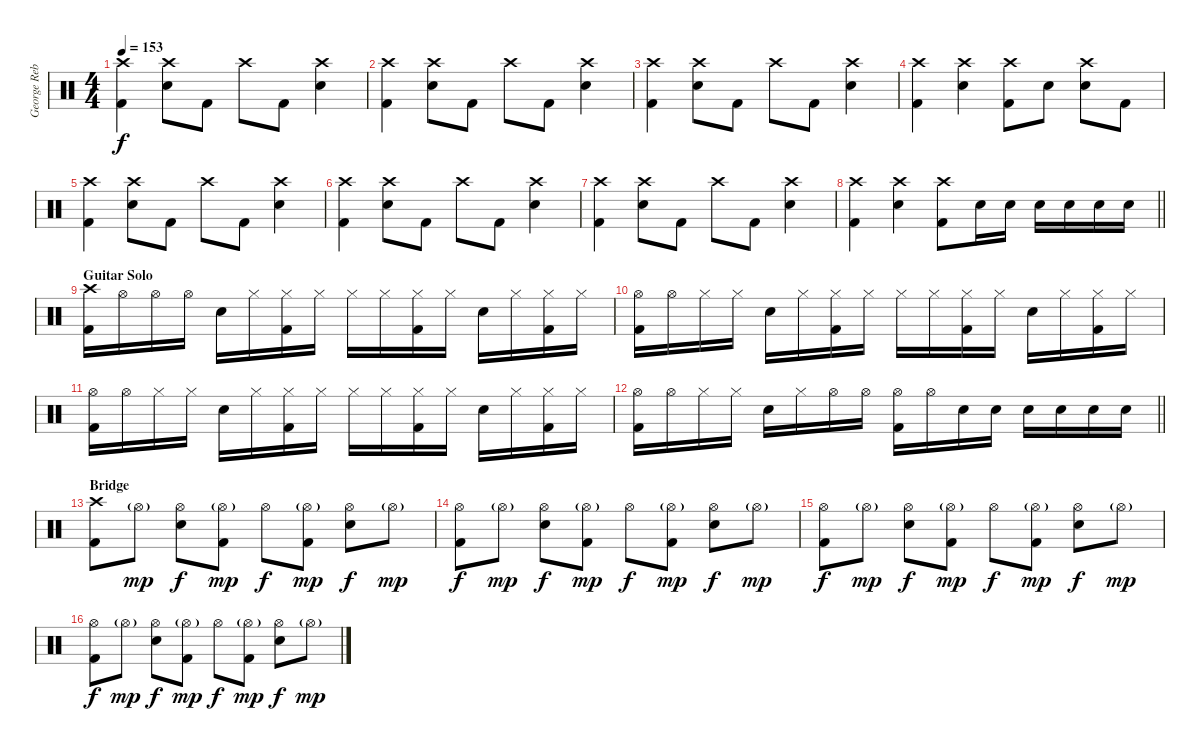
\track ("George Rebelo (Drums)" "George Reb") {instrument percussion}
\staff {score}
\articulation defaults
\ts (4 4)
\tempo 153
\clef neutral
\ks c
("Crash high (hit)" "Kick (hit) 2").4{dy f} ("Crash high (hit)" "Electric Snare (hit)").8 "Kick (hit) 2".8 "Crash high (hit)".8 "Kick (hit) 2".8 ("Crash high (hit)" "Electric Snare (hit)").4 |
("Crash high (hit)" "Kick (hit) 2").4 ("Crash high (hit)" "Electric Snare (hit)").8 "Kick (hit) 2".8 "Crash high (hit)".8 "Kick (hit) 2".8 ("Crash high (hit)" "Electric Snare (hit)").4 |
("Crash high (hit)" "Kick (hit) 2").4 ("Crash high (hit)" "Electric Snare (hit)").8 "Kick (hit) 2".8 "Crash high (hit)".8 "Kick (hit) 2".8 ("Crash high (hit)" "Electric Snare (hit)").4 |
("Crash high (hit)" "Kick (hit) 2").4 ("Crash high (hit)" "Electric Snare (hit)").4 ("Crash high (hit)" "Kick (hit) 2").8 "Electric Snare (hit)".8 ("Crash high (hit)" "Electric Snare (hit)").8 "Kick (hit) 2".8 |
("Crash high (hit)" "Kick (hit) 2").4 ("Crash high (hit)" "Electric Snare (hit)").8 "Kick (hit) 2".8 "Crash high (hit)".8 "Kick (hit) 2".8 ("Crash high (hit)" "Electric Snare (hit)").4 |
("Crash high (hit)" "Kick (hit) 2").4 ("Crash high (hit)" "Electric Snare (hit)").8 "Kick (hit) 2".8 "Crash high (hit)".8 "Kick (hit) 2".8 ("Crash high (hit)" "Electric Snare (hit)").4 |
("Crash high (hit)" "Kick (hit) 2").4 ("Crash high (hit)" "Electric Snare (hit)").8 "Kick (hit) 2".8 "Crash high (hit)".8 "Kick (hit) 2".8 ("Crash high (hit)" "Electric Snare (hit)").4 |
\barLineRight lightlight
("Crash high (hit)" "Kick (hit) 2").4 ("Crash high (hit)" "Electric Snare (hit)").4 ("Crash high (hit)" "Kick (hit) 2").8 "Electric Snare (hit)".16 "Electric Snare (hit)".16 "Electric Snare (hit)".16 "Electric Snare (hit)".16 "Electric Snare (hit)".16 "Electric Snare (hit)".16 |
\section ("" "Guitar Solo")
("Crash high (hit)" "Kick (hit) 2").16 "Hi-Hat (open)".16 "Hi-Hat (open)".16 "Hi-Hat (open)".16 "Electric Snare (hit)".16 "Hi-Hat (closed)".16 ("Hi-Hat (closed)" "Kick (hit) 2").16 "Hi-Hat (closed)".16 "Hi-Hat (closed)".16 "Hi-Hat (closed)".16 ("Hi-Hat (closed)" "Kick (hit) 2").16 "Hi-Hat (closed)".16 "Electric Snare (hit)".16 "Hi-Hat (closed)".16 ("Hi-Hat (closed)" "Kick (hit) 2").16 "Hi-Hat (closed)".16 |
("Hi-Hat (open)" "Kick (hit) 2").16 "Hi-Hat (open)".16 "Hi-Hat (closed)".16 "Hi-Hat (closed)".16 "Electric Snare (hit)".16 "Hi-Hat (closed)".16 ("Hi-Hat (closed)" "Kick (hit) 2").16 "Hi-Hat (closed)".16 "Hi-Hat (closed)".16 "Hi-Hat (closed)".16 ("Hi-Hat (closed)" "Kick (hit) 2").16 "Hi-Hat (closed)".16 "Electric Snare (hit)".16 "Hi-Hat (closed)".16 ("Hi-Hat (closed)" "Kick (hit) 2").16 "Hi-Hat (closed)".16 |
("Hi-Hat (open)" "Kick (hit) 2").16 "Hi-Hat (open)".16 "Hi-Hat (closed)".16 "Hi-Hat (closed)".16 "Electric Snare (hit)".16 "Hi-Hat (closed)".16 ("Hi-Hat (closed)" "Kick (hit) 2").16 "Hi-Hat (closed)".16 "Hi-Hat (closed)".16 "Hi-Hat (closed)".16 ("Hi-Hat (closed)" "Kick (hit) 2").16 "Hi-Hat (closed)".16 "Electric Snare (hit)".16 "Hi-Hat (closed)".16 ("Hi-Hat (closed)" "Kick (hit) 2").16 "Hi-Hat (closed)".16 |
\barLineRight lightlight
("Hi-Hat (open)" "Kick (hit) 2").16 "Hi-Hat (open)".16 "Hi-Hat (closed)".16 "Hi-Hat (closed)".16 "Electric Snare (hit)".16 "Hi-Hat (closed)".16 "Hi-Hat (open)".16 "Hi-Hat (open)".16 ("Hi-Hat (open)" "Kick (hit) 2").16 "Hi-Hat (open)".16 "Electric Snare (hit)".16 "Electric Snare (hit)".16 "Electric Snare (hit)".16 "Electric Snare (hit)".16 "Electric Snare (hit)".16 "Electric Snare (hit)".16 |
\section ("" "Bridge")
("Crash high (hit)" "Kick (hit) 2").8 "Hi-Hat (open)"{g}.8{dy mp} ("Hi-Hat (open)" "Electric Snare (hit)").8{dy f} ("Hi-Hat (open)"{g} "Kick (hit) 2").8{dy mp} "Hi-Hat (open)".8{dy f} ("Hi-Hat (open)"{g} "Kick (hit) 2").8{dy mp} ("Hi-Hat (open)" "Electric Snare (hit)").8{dy f} "Hi-Hat (open)"{g}.8{dy mp} |
("Hi-Hat (open)" "Kick (hit) 2").8{dy f} "Hi-Hat (open)"{g}.8{dy mp} ("Hi-Hat (open)" "Electric Snare (hit)").8{dy f} ("Hi-Hat (open)"{g} "Kick (hit) 2").8{dy mp} "Hi-Hat (open)".8{dy f} ("Hi-Hat (open)"{g} "Kick (hit) 2").8{dy mp} ("Hi-Hat (open)" "Electric Snare (hit)").8{dy f} "Hi-Hat (open)"{g}.8{dy mp} |
("Hi-Hat (open)" "Kick (hit) 2").8{dy f} "Hi-Hat (open)"{g}.8{dy mp} ("Hi-Hat (open)" "Electric Snare (hit)").8{dy f} ("Hi-Hat (open)"{g} "Kick (hit) 2").8{dy mp} "Hi-Hat (open)".8{dy f} ("Hi-Hat (open)"{g} "Kick (hit) 2").8{dy mp} ("Hi-Hat (open)" "Electric Snare (hit)").8{dy f} "Hi-Hat (open)"{g}.8{dy mp} |
("Hi-Hat (open)" "Kick (hit) 2").8{dy f} "Hi-Hat (open)"{g}.8{dy mp} ("Hi-Hat (open)" "Electric Snare (hit)").8{dy f} ("Hi-Hat (open)"{g} "Kick (hit) 2").8{dy mp} "Hi-Hat (open)".8{dy f} ("Hi-Hat (open)"{g} "Kick (hit) 2").8{dy mp} ("Hi-Hat (open)" "Electric Snare (hit)").8{dy f} "Hi-Hat (open)"{g}.8{dy mp}
